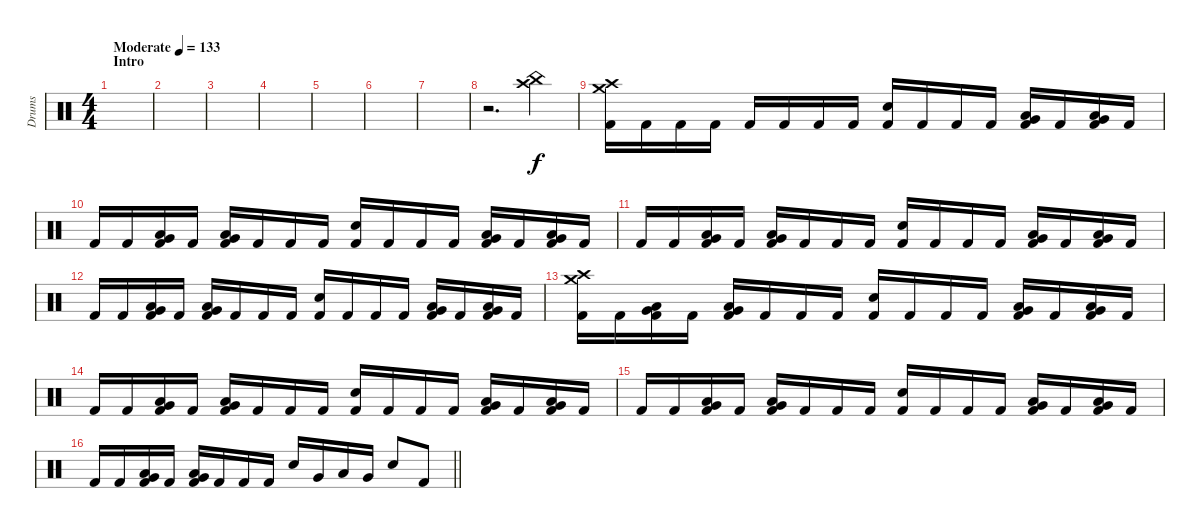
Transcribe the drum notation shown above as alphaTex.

\track ("Drums" "Drums") {instrument percussion}
\staff {score}
\articulation defaults
\ts (4 4)
\section ("" "Intro")
\tempo (133 "Moderate")
\clef neutral
\ks c
|
|
|
|
|
|
|
r.2{d} ("Crash high (hit)" "China (hit)").4 |
("Crash medium (hit)" "Crash high (hit)" "Kick (hit) 2").16 "Kick (hit) 2".16 "Kick (hit) 2".16 "Kick (hit) 2".16 "Kick (hit) 2".16 "Kick (hit) 2".16 "Kick (hit) 2".16 "Kick (hit) 2".16 ("Snare (hit) 2" "Kick (hit) 2").16 "Kick (hit) 2".16 "Kick (hit) 2".16 "Kick (hit) 2".16 ("Very Low Tom (hit)" "Low Tom (hit)" "Kick (hit) 2").16 "Kick (hit) 2".16 ("Very Low Tom (hit)" "Low Tom (hit)" "Kick (hit) 2").16 "Kick (hit) 2".16 |
"Kick (hit) 2".16 "Kick (hit) 2".16 ("Very Low Tom (hit)" "Low Tom (hit)" "Kick (hit) 2").16 "Kick (hit) 2".16 ("Very Low Tom (hit)" "Low Tom (hit)" "Kick (hit) 2").16 "Kick (hit) 2".16 "Kick (hit) 2".16 "Kick (hit) 2".16 ("Snare (hit) 2" "Kick (hit) 2").16 "Kick (hit) 2".16 "Kick (hit) 2".16 "Kick (hit) 2".16 ("Very Low Tom (hit)" "Low Tom (hit)" "Kick (hit) 2").16 "Kick (hit) 2".16 ("Very Low Tom (hit)" "Low Tom (hit)" "Kick (hit) 2").16 "Kick (hit) 2".16 |
"Kick (hit) 2".16 "Kick (hit) 2".16 ("Very Low Tom (hit)" "Low Tom (hit)" "Kick (hit) 2").16 "Kick (hit) 2".16 ("Very Low Tom (hit)" "Low Tom (hit)" "Kick (hit) 2").16 "Kick (hit) 2".16 "Kick (hit) 2".16 "Kick (hit) 2".16 ("Snare (hit) 2" "Kick (hit) 2").16 "Kick (hit) 2".16 "Kick (hit) 2".16 "Kick (hit) 2".16 ("Very Low Tom (hit)" "Low Tom (hit)" "Kick (hit) 2").16 "Kick (hit) 2".16 ("Very Low Tom (hit)" "Low Tom (hit)" "Kick (hit) 2").16 "Kick (hit) 2".16 |
"Kick (hit) 2".16 "Kick (hit) 2".16 ("Very Low Tom (hit)" "Low Tom (hit)" "Kick (hit) 2").16 "Kick (hit) 2".16 ("Very Low Tom (hit)" "Low Tom (hit)" "Kick (hit) 2").16 "Kick (hit) 2".16 "Kick (hit) 2".16 "Kick (hit) 2".16 ("Snare (hit) 2" "Kick (hit) 2").16 "Kick (hit) 2".16 "Kick (hit) 2".16 "Kick (hit) 2".16 ("Very Low Tom (hit)" "Low Tom (hit)" "Kick (hit) 2").16 "Kick (hit) 2".16 ("Very Low Tom (hit)" "Low Tom (hit)" "Kick (hit) 2").16 "Kick (hit) 2".16 |
("Crash high (hit)" "Crash medium (hit)" "Kick (hit) 2").16 "Kick (hit) 2".16 ("Very Low Tom (hit)" "Low Tom (hit)" "Kick (hit) 2").16 "Kick (hit) 2".16 ("Very Low Tom (hit)" "Low Tom (hit)" "Kick (hit) 2").16 "Kick (hit) 2".16 "Kick (hit) 2".16 "Kick (hit) 2".16 ("Snare (hit) 2" "Kick (hit) 2").16 "Kick (hit) 2".16 "Kick (hit) 2".16 "Kick (hit) 2".16 ("Very Low Tom (hit)" "Low Tom (hit)" "Kick (hit) 2").16 "Kick (hit) 2".16 ("Very Low Tom (hit)" "Low Tom (hit)" "Kick (hit) 2").16 "Kick (hit) 2".16 |
"Kick (hit) 2".16 "Kick (hit) 2".16 ("Very Low Tom (hit)" "Low Tom (hit)" "Kick (hit) 2").16 "Kick (hit) 2".16 ("Very Low Tom (hit)" "Low Tom (hit)" "Kick (hit) 2").16 "Kick (hit) 2".16 "Kick (hit) 2".16 "Kick (hit) 2".16 ("Snare (hit) 2" "Kick (hit) 2").16 "Kick (hit) 2".16 "Kick (hit) 2".16 "Kick (hit) 2".16 ("Very Low Tom (hit)" "Low Tom (hit)" "Kick (hit) 2").16 "Kick (hit) 2".16 ("Very Low Tom (hit)" "Low Tom (hit)" "Kick (hit) 2").16 "Kick (hit) 2".16 |
"Kick (hit) 2".16 "Kick (hit) 2".16 ("Very Low Tom (hit)" "Low Tom (hit)" "Kick (hit) 2").16 "Kick (hit) 2".16 ("Very Low Tom (hit)" "Low Tom (hit)" "Kick (hit) 2").16 "Kick (hit) 2".16 "Kick (hit) 2".16 "Kick (hit) 2".16 ("Snare (hit) 2" "Kick (hit) 2").16 "Kick (hit) 2".16 "Kick (hit) 2".16 "Kick (hit) 2".16 ("Very Low Tom (hit)" "Low Tom (hit)" "Kick (hit) 2").16 "Kick (hit) 2".16 ("Very Low Tom (hit)" "Low Tom (hit)" "Kick (hit) 2").16 "Kick (hit) 2".16 |
\barLineRight lightlight "Kick (hit) 2".16 "Kick (hit) 2".16
("Very Low Tom (hit)" "Low Tom (hit)" "Kick (hit) 2").16 "Kick (hit) 2".16 ("Very Low Tom (hit)" "Low Tom (hit)" "Kick (hit) 2").16 "Kick (hit) 2".16 "Kick (hit) 2".16 "Kick (hit) 2".16 "Snare (hit) 2".16 "Very Low Tom (hit)".16 "Low Tom (hit)".16 "Very Low Tom (hit)".16 "Snare (hit) 2".8 "Kick (hit) 2".8
